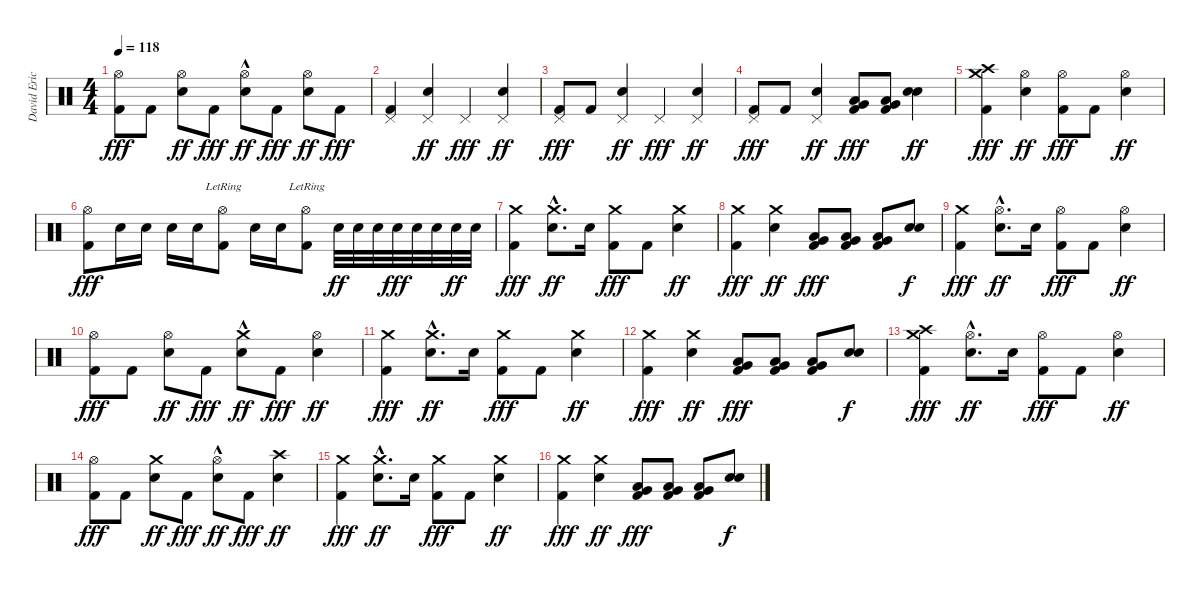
\track ("David Eric Grohl" "David Eric") {instrument percussion}
\staff {score}
\articulation defaults
\ts (4 4)
\tempo 118
\clef neutral
\ks c
("Hi-Hat (open)" "Kick (hit) 2").8{dy fff} "Kick (hit) 2".8 ("Hi-Hat (open)" "Electric Snare (hit)").8{dy ff} "Kick (hit) 2".8{dy fff} ("Hi-Hat (open)"{hac} "Electric Snare (hit)").8{dy ff} "Kick (hit) 2".8{dy fff} ("Hi-Hat (open)" "Electric Snare (hit)").8{dy ff} "Kick (hit) 2".8{dy fff} |
("Pedal Hi-Hat (hit)" "Kick (hit) 2").4 ("Pedal Hi-Hat (hit)" "Electric Snare (hit)").4{dy ff} "Pedal Hi-Hat (hit)".4{dy fff} ("Pedal Hi-Hat (hit)" "Electric Snare (hit)").4{dy ff} |
("Pedal Hi-Hat (hit)" "Kick (hit) 2").8{dy fff} "Kick (hit) 2".8 ("Pedal Hi-Hat (hit)" "Electric Snare (hit)").4{dy ff} "Pedal Hi-Hat (hit)".4{dy fff} ("Pedal Hi-Hat (hit)" "Electric Snare (hit)").4{dy ff} |
("Pedal Hi-Hat (hit)" "Kick (hit) 2").8{dy fff} "Kick (hit) 2".8 ("Pedal Hi-Hat (hit)" "Electric Snare (hit)").4{dy ff} ("Low Tom (hit)" "Very Low Tom (hit)" "Kick (hit) 2").8{dy fff} ("Low Tom (hit)" "Very Low Tom (hit)" "Kick (hit) 2").8 ("Electric Snare (hit)" "Electric Snare (hit)").4{dy ff} |
("Crash medium (hit)" "Crash high (hit)" "Kick (hit) 2").4{dy fff} ("Hi-Hat (open)" "Electric Snare (hit)").4{dy ff} ("Hi-Hat (open)" "Kick (hit) 2").8{dy fff} "Kick (hit) 2".8 ("Hi-Hat (open)" "Electric Snare (hit)").4{dy ff} |
("Hi-Hat (open)" "Kick (hit) 2").8{dy fff} "Electric Snare (hit)".16 "Electric Snare (hit)".16 "Electric Snare (hit)".16 "Electric Snare (hit)".16 ("Hi-Hat (open)"{lr} "Kick (hit) 2").8 "Electric Snare (hit)".16 "Electric Snare (hit)".16 ("Hi-Hat (open)"{lr} "Kick (hit) 2").8 "Electric Snare (hit)".32{dy ff} "Electric Snare (hit)".32 "Electric Snare (hit)".32 "Electric Snare (hit)".32{dy fff} "Electric Snare (hit)".32 "Electric Snare (hit)".32 "Electric Snare (hit)".32{dy ff} "Electric Snare (hit)".32 |
("Crash medium (hit)" "Kick (hit) 2").4{dy fff} ("Crash medium (hit)"{hac} "Electric Snare (hit)"{hac}).8{d dy ff} "Electric Snare (hit)".16 ("Crash medium (hit)" "Kick (hit) 2").8{dy fff} "Kick (hit) 2".8 ("Crash medium (hit)" "Electric Snare (hit)").4{dy ff} |
("Crash medium (hit)" "Kick (hit) 2").4{dy fff} ("Crash medium (hit)" "Electric Snare (hit)").4{dy ff} ("Low Tom (hit)" "Very Low Tom (hit)" "Kick (hit) 2").8{dy fff} ("Low Tom (hit)" "Very Low Tom (hit)" "Kick (hit) 2").8 ("Low Tom (hit)" "Very Low Tom (hit)" "Kick (hit) 2").8 ("Electric Snare (hit)" "Electric Snare (hit)").8{dy f} |
("Crash medium (hit)" "Kick (hit) 2").4{dy fff} ("Hi-Hat (open)"{hac} "Electric Snare (hit)"{hac}).8{d dy ff} "Electric Snare (hit)".16 ("Hi-Hat (open)" "Kick (hit) 2").8{dy fff} "Kick (hit) 2".8 ("Hi-Hat (open)" "Electric Snare (hit)").4{dy ff} |
("Hi-Hat (open)" "Kick (hit) 2").8{dy fff} "Kick (hit) 2".8 ("Hi-Hat (open)" "Electric Snare (hit)").8{dy ff} "Kick (hit) 2".8{dy fff} ("Crash medium (hit)"{hac} "Electric Snare (hit)").8{dy ff} "Kick (hit) 2".8{dy fff} ("Hi-Hat (open)" "Electric Snare (hit)").4{dy ff} |
("Crash medium (hit)" "Kick (hit) 2").4{dy fff} ("Crash medium (hit)"{hac} "Electric Snare (hit)"{hac}).8{d dy ff} "Electric Snare (hit)".16 ("Crash medium (hit)" "Kick (hit) 2").8{dy fff} "Kick (hit) 2".8 ("Crash medium (hit)" "Electric Snare (hit)").4{dy ff} |
("Crash medium (hit)" "Kick (hit) 2").4{dy fff} ("Crash medium (hit)" "Electric Snare (hit)").4{dy ff} ("Low Tom (hit)" "Very Low Tom (hit)" "Kick (hit) 2").8{dy fff} ("Low Tom (hit)" "Very Low Tom (hit)" "Kick (hit) 2").8 ("Low Tom (hit)" "Very Low Tom (hit)" "Kick (hit) 2").8 ("Electric Snare (hit)" "Electric Snare (hit)").8{dy f} |
("Crash medium (hit)" "Crash high (hit)" "Kick (hit) 2").4{dy fff} ("Hi-Hat (open)"{hac} "Electric Snare (hit)"{hac}).8{d dy ff} "Electric Snare (hit)".16 ("Hi-Hat (open)" "Kick (hit) 2").8{dy fff} "Kick (hit) 2".8 ("Hi-Hat (open)" "Electric Snare (hit)").4{dy ff} |
("Hi-Hat (open)" "Kick (hit) 2").8{dy fff} "Kick (hit) 2".8 ("Crash medium (hit)" "Electric Snare (hit)").8{dy ff} "Kick (hit) 2".8{dy fff} ("Hi-Hat (open)"{hac} "Electric Snare (hit)").8{dy ff} "Kick (hit) 2".8{dy fff} ("Crash high (hit)" "Electric Snare (hit)").4{dy ff} |
("Crash medium (hit)" "Kick (hit) 2").4{dy fff} ("Crash medium (hit)"{hac} "Electric Snare (hit)"{hac}).8{d dy ff} "Electric Snare (hit)".16 ("Crash medium (hit)" "Kick (hit) 2").8{dy fff} "Kick (hit) 2".8 ("Crash medium (hit)" "Electric Snare (hit)").4{dy ff} |
("Crash medium (hit)" "Kick (hit) 2").4{dy fff} ("Crash medium (hit)" "Electric Snare (hit)").4{dy ff} ("Low Tom (hit)" "Very Low Tom (hit)" "Kick (hit) 2").8{dy fff} ("Low Tom (hit)" "Very Low Tom (hit)" "Kick (hit) 2").8 ("Low Tom (hit)" "Very Low Tom (hit)" "Kick (hit) 2").8 ("Electric Snare (hit)" "Electric Snare (hit)").8{dy f}
